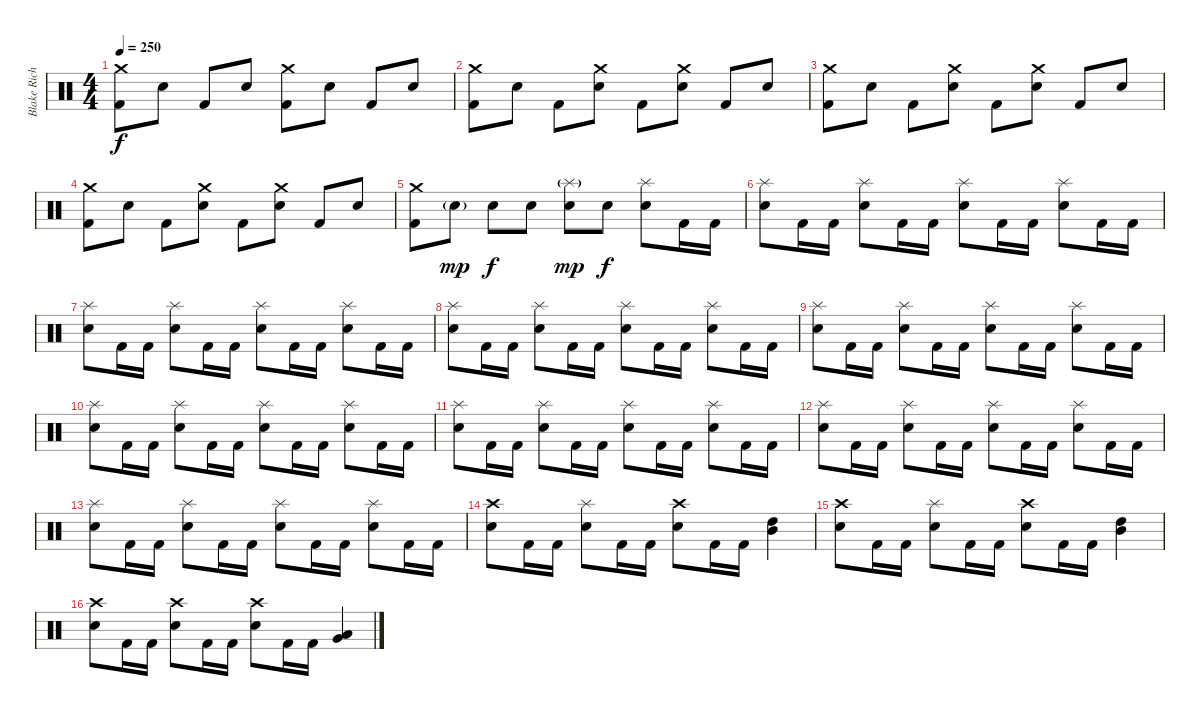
\track ("Blake Richardson - Drums" "Blake Rich") {instrument percussion}
\staff {score}
\articulation defaults
\ts (4 4)
\tempo 250
\clef neutral
\ks c
("Crash medium (hit)" "Kick (hit) 2").8{dy f} "Electric Snare (hit)".8 "Kick (hit) 2".8 "Electric Snare (hit)".8 ("Crash medium (hit)" "Kick (hit) 2").8 "Electric Snare (hit)".8 "Kick (hit) 2".8 "Electric Snare (hit)".8 |
("Crash medium (hit)" "Kick (hit) 2").8 "Electric Snare (hit)".8 "Kick (hit) 2".8 ("Crash medium (hit)" "Electric Snare (hit)").8 "Kick (hit) 2".8 ("Crash medium (hit)" "Electric Snare (hit)").8 "Kick (hit) 2".8 "Electric Snare (hit)".8 |
("Crash medium (hit)" "Kick (hit) 2").8 "Electric Snare (hit)".8 "Kick (hit) 2".8 ("Crash medium (hit)" "Electric Snare (hit)").8 "Kick (hit) 2".8 ("Crash medium (hit)" "Electric Snare (hit)").8 "Kick (hit) 2".8 "Electric Snare (hit)".8 |
("Crash medium (hit)" "Kick (hit) 2").8 "Electric Snare (hit)".8 "Kick (hit) 2".8 ("Crash medium (hit)" "Electric Snare (hit)").8 "Kick (hit) 2".8 ("Crash medium (hit)" "Electric Snare (hit)").8 "Kick (hit) 2".8 "Electric Snare (hit)".8 |
("Crash medium (hit)" "Kick (hit) 2").8 "Electric Snare (hit)"{g}.8{dy mp} "Electric Snare (hit)".8{dy f} "Electric Snare (hit)".8 ("Splash (hit)"{g} "Electric Snare (hit)").8{dy mp} "Electric Snare (hit)".8{dy f} ("Splash (hit)" "Electric Snare (hit)").8 "Kick (hit) 2".16 "Kick (hit) 2".16 |
("Splash (hit)" "Electric Snare (hit)").8 "Kick (hit) 2".16 "Kick (hit) 2".16 ("Splash (hit)" "Electric Snare (hit)").8 "Kick (hit) 2".16 "Kick (hit) 2".16 ("Splash (hit)" "Electric Snare (hit)").8 "Kick (hit) 2".16 "Kick (hit) 2".16 ("Splash (hit)" "Electric Snare (hit)").8 "Kick (hit) 2".16 "Kick (hit) 2".16 |
("Splash (hit)" "Electric Snare (hit)").8 "Kick (hit) 2".16 "Kick (hit) 2".16 ("Splash (hit)" "Electric Snare (hit)").8 "Kick (hit) 2".16 "Kick (hit) 2".16 ("Splash (hit)" "Electric Snare (hit)").8 "Kick (hit) 2".16 "Kick (hit) 2".16 ("Splash (hit)" "Electric Snare (hit)").8 "Kick (hit) 2".16 "Kick (hit) 2".16 |
("Splash (hit)" "Electric Snare (hit)").8 "Kick (hit) 2".16 "Kick (hit) 2".16 ("Splash (hit)" "Electric Snare (hit)").8 "Kick (hit) 2".16 "Kick (hit) 2".16 ("Splash (hit)" "Electric Snare (hit)").8 "Kick (hit) 2".16 "Kick (hit) 2".16 ("Splash (hit)" "Electric Snare (hit)").8 "Kick (hit) 2".16 "Kick (hit) 2".16 |
("Splash (hit)" "Electric Snare (hit)").8 "Kick (hit) 2".16 "Kick (hit) 2".16 ("Splash (hit)" "Electric Snare (hit)").8 "Kick (hit) 2".16 "Kick (hit) 2".16 ("Splash (hit)" "Electric Snare (hit)").8 "Kick (hit) 2".16 "Kick (hit) 2".16 ("Splash (hit)" "Electric Snare (hit)").8 "Kick (hit) 2".16 "Kick (hit) 2".16 |
("Splash (hit)" "Electric Snare (hit)").8 "Kick (hit) 2".16 "Kick (hit) 2".16 ("Splash (hit)" "Electric Snare (hit)").8 "Kick (hit) 2".16 "Kick (hit) 2".16 ("Splash (hit)" "Electric Snare (hit)").8 "Kick (hit) 2".16 "Kick (hit) 2".16 ("Splash (hit)" "Electric Snare (hit)").8 "Kick (hit) 2".16 "Kick (hit) 2".16 |
("Splash (hit)" "Electric Snare (hit)").8 "Kick (hit) 2".16 "Kick (hit) 2".16 ("Splash (hit)" "Electric Snare (hit)").8 "Kick (hit) 2".16 "Kick (hit) 2".16 ("Splash (hit)" "Electric Snare (hit)").8 "Kick (hit) 2".16 "Kick (hit) 2".16 ("Splash (hit)" "Electric Snare (hit)").8 "Kick (hit) 2".16 "Kick (hit) 2".16 |
("Splash (hit)" "Electric Snare (hit)").8 "Kick (hit) 2".16 "Kick (hit) 2".16 ("Splash (hit)" "Electric Snare (hit)").8 "Kick (hit) 2".16 "Kick (hit) 2".16 ("Splash (hit)" "Electric Snare (hit)").8 "Kick (hit) 2".16 "Kick (hit) 2".16 ("Splash (hit)" "Electric Snare (hit)").8 "Kick (hit) 2".16 "Kick (hit) 2".16 |
("Splash (hit)" "Electric Snare (hit)").8 "Kick (hit) 2".16 "Kick (hit) 2".16 ("Splash (hit)" "Electric Snare (hit)").8 "Kick (hit) 2".16 "Kick (hit) 2".16 ("Splash (hit)" "Electric Snare (hit)").8 "Kick (hit) 2".16 "Kick (hit) 2".16 ("Splash (hit)" "Electric Snare (hit)").8 "Kick (hit) 2".16 "Kick (hit) 2".16 |
("Crash high (hit)" "Electric Snare (hit)").8 "Kick (hit) 2".16 "Kick (hit) 2".16 ("Splash (hit)" "Electric Snare (hit)").8 "Kick (hit) 2".16 "Kick (hit) 2".16 ("Crash high (hit)" "Electric Snare (hit)").8 "Kick (hit) 2".16 "Kick (hit) 2".16 ("High Tom (hit)" "Mid Tom (hit)").4 |
("Crash high (hit)" "Electric Snare (hit)").8 "Kick (hit) 2".16 "Kick (hit) 2".16 ("Splash (hit)" "Electric Snare (hit)").8 "Kick (hit) 2".16 "Kick (hit) 2".16 ("Crash high (hit)" "Electric Snare (hit)").8 "Kick (hit) 2".16 "Kick (hit) 2".16 ("High Tom (hit)" "Mid Tom (hit)").4 |
("Crash high (hit)" "Electric Snare (hit)").8 "Kick (hit) 2".16 "Kick (hit) 2".16 ("Crash high (hit)" "Electric Snare (hit)").8 "Kick (hit) 2".16 "Kick (hit) 2".16 ("Crash high (hit)" "Electric Snare (hit)").8 "Kick (hit) 2".16 "Kick (hit) 2".16 ("Low Tom (hit)" "Very Low Tom (hit)").4
